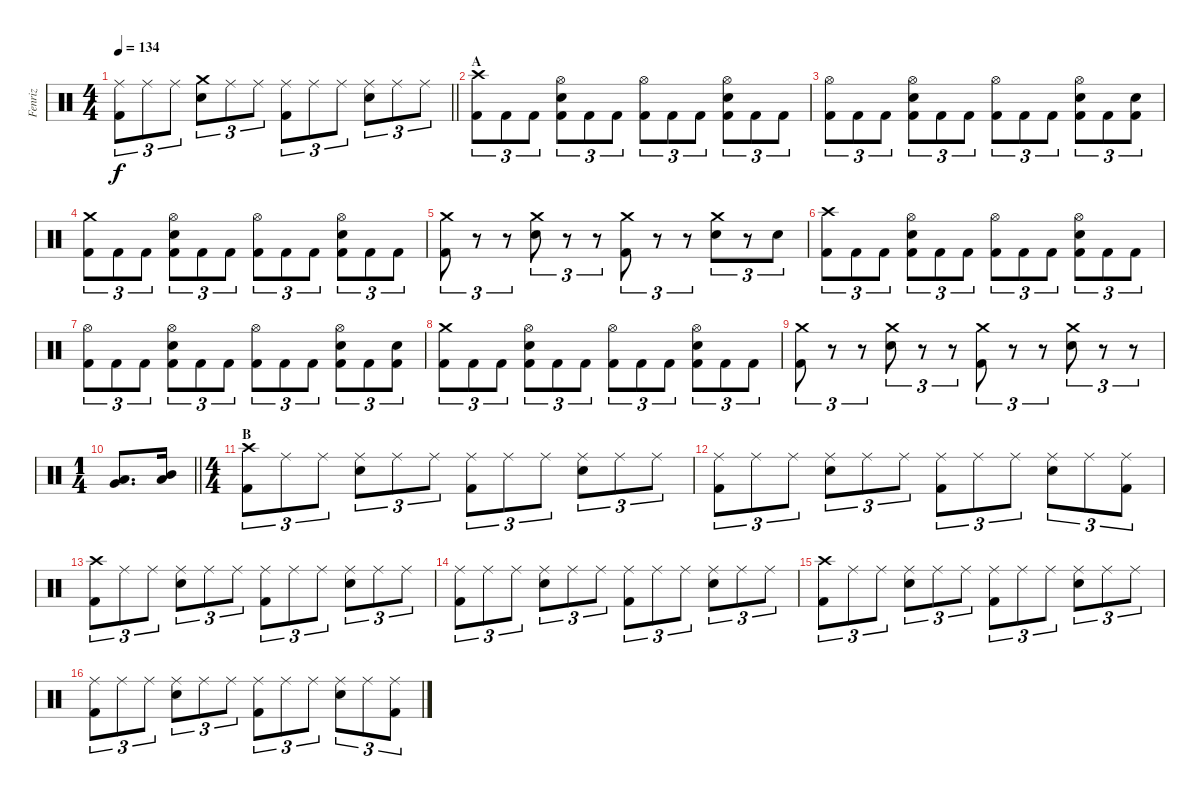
\track ("Fenriz" "Fenriz") {instrument percussion}
\staff {score}
\articulation defaults
\ts (4 4)
\tempo 134
\clef neutral
\barLineRight lightlight
\ks c
("Ride (middle)" "Kick (hit) 2").8{tu (3 2) dy f} "Ride (middle)".8{tu (3 2)} "Ride (middle)".8{tu (3 2)} ("Crash medium (hit)" "Snare (hit) 2").8{tu (3 2)} "Ride (middle)".8{tu (3 2)} "Ride (middle)".8{tu (3 2)} ("Ride (middle)" "Kick (hit) 2").8{tu (3 2)} "Ride (middle)".8{tu (3 2)} "Ride (middle)".8{tu (3 2)} ("Ride (middle)" "Snare (hit) 2").8{tu (3 2)} "Ride (middle)".8{tu (3 2)} "Ride (middle)".8{tu (3 2)} |
\section ("" "A")
("Crash high (hit)" "Kick (hit) 2").8{tu (3 2)} "Kick (hit) 2".8{tu (3 2)} "Kick (hit) 2".8{tu (3 2)} ("Hi-Hat (open)" "Snare (hit) 2" "Kick (hit) 2").8{tu (3 2)} "Kick (hit) 2".8{tu (3 2)} "Kick (hit) 2".8{tu (3 2)} ("Hi-Hat (open)" "Kick (hit) 2").8{tu (3 2)} "Kick (hit) 2".8{tu (3 2)} "Kick (hit) 2".8{tu (3 2)} ("Hi-Hat (open)" "Snare (hit) 2" "Kick (hit) 2").8{tu (3 2)} "Kick (hit) 2".8{tu (3 2)} "Kick (hit) 2".8{tu (3 2)} |
("Hi-Hat (open)" "Kick (hit) 2").8{tu (3 2)} "Kick (hit) 2".8{tu (3 2)} "Kick (hit) 2".8{tu (3 2)} ("Hi-Hat (open)" "Snare (hit) 2" "Kick (hit) 2").8{tu (3 2)} "Kick (hit) 2".8{tu (3 2)} "Kick (hit) 2".8{tu (3 2)} ("Hi-Hat (open)" "Kick (hit) 2").8{tu (3 2)} "Kick (hit) 2".8{tu (3 2)} "Kick (hit) 2".8{tu (3 2)} ("Hi-Hat (open)" "Snare (hit) 2" "Kick (hit) 2").8{tu (3 2)} "Kick (hit) 2".8{tu (3 2)} ("Snare (hit) 2" "Kick (hit) 2").8{tu (3 2)} |
("Crash medium (hit)" "Kick (hit) 2").8{tu (3 2)} "Kick (hit) 2".8{tu (3 2)} "Kick (hit) 2".8{tu (3 2)} ("Hi-Hat (open)" "Snare (hit) 2" "Kick (hit) 2").8{tu (3 2)} "Kick (hit) 2".8{tu (3 2)} "Kick (hit) 2".8{tu (3 2)} ("Hi-Hat (open)" "Kick (hit) 2").8{tu (3 2)} "Kick (hit) 2".8{tu (3 2)} "Kick (hit) 2".8{tu (3 2)} ("Hi-Hat (open)" "Snare (hit) 2" "Kick (hit) 2").8{tu (3 2)} "Kick (hit) 2".8{tu (3 2)} "Kick (hit) 2".8{tu (3 2)} |
("Crash medium (hit)" "Kick (hit) 2").8{tu (3 2)} r.8{tu (3 2)} r.8{tu (3 2)} ("Crash medium (hit)" "Snare (hit) 2").8{tu (3 2)} r.8{tu (3 2)} r.8{tu (3 2)} ("Crash medium (hit)" "Kick (hit) 2").8{tu (3 2)} r.8{tu (3 2)} r.8{tu (3 2)} ("Crash medium (hit)" "Snare (hit) 2").8{tu (3 2)} r.8{tu (3 2)} "Snare (hit) 2".8{tu (3 2)} |
("Crash high (hit)" "Kick (hit) 2").8{tu (3 2)} "Kick (hit) 2".8{tu (3 2)} "Kick (hit) 2".8{tu (3 2)} ("Hi-Hat (open)" "Snare (hit) 2" "Kick (hit) 2").8{tu (3 2)} "Kick (hit) 2".8{tu (3 2)} "Kick (hit) 2".8{tu (3 2)} ("Hi-Hat (open)" "Kick (hit) 2").8{tu (3 2)} "Kick (hit) 2".8{tu (3 2)} "Kick (hit) 2".8{tu (3 2)} ("Hi-Hat (open)" "Snare (hit) 2" "Kick (hit) 2").8{tu (3 2)} "Kick (hit) 2".8{tu (3 2)} "Kick (hit) 2".8{tu (3 2)} |
("Hi-Hat (open)" "Kick (hit) 2").8{tu (3 2)} "Kick (hit) 2".8{tu (3 2)} "Kick (hit) 2".8{tu (3 2)} ("Hi-Hat (open)" "Snare (hit) 2" "Kick (hit) 2").8{tu (3 2)} "Kick (hit) 2".8{tu (3 2)} "Kick (hit) 2".8{tu (3 2)} ("Hi-Hat (open)" "Kick (hit) 2").8{tu (3 2)} "Kick (hit) 2".8{tu (3 2)} "Kick (hit) 2".8{tu (3 2)} ("Hi-Hat (open)" "Snare (hit) 2" "Kick (hit) 2").8{tu (3 2)} "Kick (hit) 2".8{tu (3 2)} ("Snare (hit) 2" "Kick (hit) 2").8{tu (3 2)} |
("Crash medium (hit)" "Kick (hit) 2").8{tu (3 2)} "Kick (hit) 2".8{tu (3 2)} "Kick (hit) 2".8{tu (3 2)} ("Hi-Hat (open)" "Snare (hit) 2" "Kick (hit) 2").8{tu (3 2)} "Kick (hit) 2".8{tu (3 2)} "Kick (hit) 2".8{tu (3 2)} ("Hi-Hat (open)" "Kick (hit) 2").8{tu (3 2)} "Kick (hit) 2".8{tu (3 2)} "Kick (hit) 2".8{tu (3 2)} ("Hi-Hat (open)" "Snare (hit) 2" "Kick (hit) 2").8{tu (3 2)} "Kick (hit) 2".8{tu (3 2)} "Kick (hit) 2".8{tu (3 2)} |
("Crash medium (hit)" "Kick (hit) 2").8{tu (3 2)} r.8{tu (3 2)} r.8{tu (3 2)} ("Crash medium (hit)" "Snare (hit) 2").8{tu (3 2)} r.8{tu (3 2)} r.8{tu (3 2)} ("Crash medium (hit)" "Kick (hit) 2").8{tu (3 2)} r.8{tu (3 2)} r.8{tu (3 2)} ("Crash medium (hit)" "Snare (hit) 2").8{tu (3 2)} r.8{tu (3 2)} r.8{tu (3 2)} |
\ts (1 4)
\barLineRight lightlight
("Low Tom (hit)" "Very Low Tom (hit)").8{d} ("Mid Tom (hit)" "Low Tom (hit)").16 |
\ts (4 4)
\section ("" "B")
("Crash high (hit)" "Kick (hit) 2").8{tu (3 2)} "Ride (middle)".8{tu (3 2)} "Ride (middle)".8{tu (3 2)} ("Ride (middle)" "Snare (hit) 2").8{tu (3 2)} "Ride (middle)".8{tu (3 2)} "Ride (middle)".8{tu (3 2)} ("Ride (middle)" "Kick (hit) 2").8{tu (3 2)} "Ride (middle)".8{tu (3 2)} "Ride (middle)".8{tu (3 2)} ("Ride (middle)" "Snare (hit) 2").8{tu (3 2)} "Ride (middle)".8{tu (3 2)} "Ride (middle)".8{tu (3 2)} |
("Ride (middle)" "Kick (hit) 2").8{tu (3 2)} "Ride (middle)".8{tu (3 2)} "Ride (middle)".8{tu (3 2)} ("Ride (middle)" "Snare (hit) 2").8{tu (3 2)} "Ride (middle)".8{tu (3 2)} "Ride (middle)".8{tu (3 2)} ("Ride (middle)" "Kick (hit) 2").8{tu (3 2)} "Ride (middle)".8{tu (3 2)} "Ride (middle)".8{tu (3 2)} ("Ride (middle)" "Snare (hit) 2").8{tu (3 2)} "Ride (middle)".8{tu (3 2)} ("Ride (middle)" "Kick (hit) 2").8{tu (3 2)} |
("Crash high (hit)" "Kick (hit) 2").8{tu (3 2)} "Ride (middle)".8{tu (3 2)} "Ride (middle)".8{tu (3 2)} ("Ride (middle)" "Snare (hit) 2").8{tu (3 2)} "Ride (middle)".8{tu (3 2)} "Ride (middle)".8{tu (3 2)} ("Ride (middle)" "Kick (hit) 2").8{tu (3 2)} "Ride (middle)".8{tu (3 2)} "Ride (middle)".8{tu (3 2)} ("Ride (middle)" "Snare (hit) 2").8{tu (3 2)} "Ride (middle)".8{tu (3 2)} "Ride (middle)".8{tu (3 2)} |
("Ride (middle)" "Kick (hit) 2").8{tu (3 2)} "Ride (middle)".8{tu (3 2)} "Ride (middle)".8{tu (3 2)} ("Ride (middle)" "Snare (hit) 2").8{tu (3 2)} "Ride (middle)".8{tu (3 2)} "Ride (middle)".8{tu (3 2)} ("Ride (middle)" "Kick (hit) 2").8{tu (3 2)} "Ride (middle)".8{tu (3 2)} "Ride (middle)".8{tu (3 2)} ("Ride (middle)" "Snare (hit) 2").8{tu (3 2)} "Ride (middle)".8{tu (3 2)} "Ride (middle)".8{tu (3 2)} |
("Crash high (hit)" "Kick (hit) 2").8{tu (3 2)} "Ride (middle)".8{tu (3 2)} "Ride (middle)".8{tu (3 2)} ("Ride (middle)" "Snare (hit) 2").8{tu (3 2)} "Ride (middle)".8{tu (3 2)} "Ride (middle)".8{tu (3 2)} ("Ride (middle)" "Kick (hit) 2").8{tu (3 2)} "Ride (middle)".8{tu (3 2)} "Ride (middle)".8{tu (3 2)} ("Ride (middle)" "Snare (hit) 2").8{tu (3 2)} "Ride (middle)".8{tu (3 2)} "Ride (middle)".8{tu (3 2)} |
("Ride (middle)" "Kick (hit) 2").8{tu (3 2)} "Ride (middle)".8{tu (3 2)} "Ride (middle)".8{tu (3 2)} ("Ride (middle)" "Snare (hit) 2").8{tu (3 2)} "Ride (middle)".8{tu (3 2)} "Ride (middle)".8{tu (3 2)} ("Ride (middle)" "Kick (hit) 2").8{tu (3 2)} "Ride (middle)".8{tu (3 2)} "Ride (middle)".8{tu (3 2)} ("Ride (middle)" "Snare (hit) 2").8{tu (3 2)} "Ride (middle)".8{tu (3 2)} ("Ride (middle)" "Kick (hit) 2").8{tu (3 2)}
